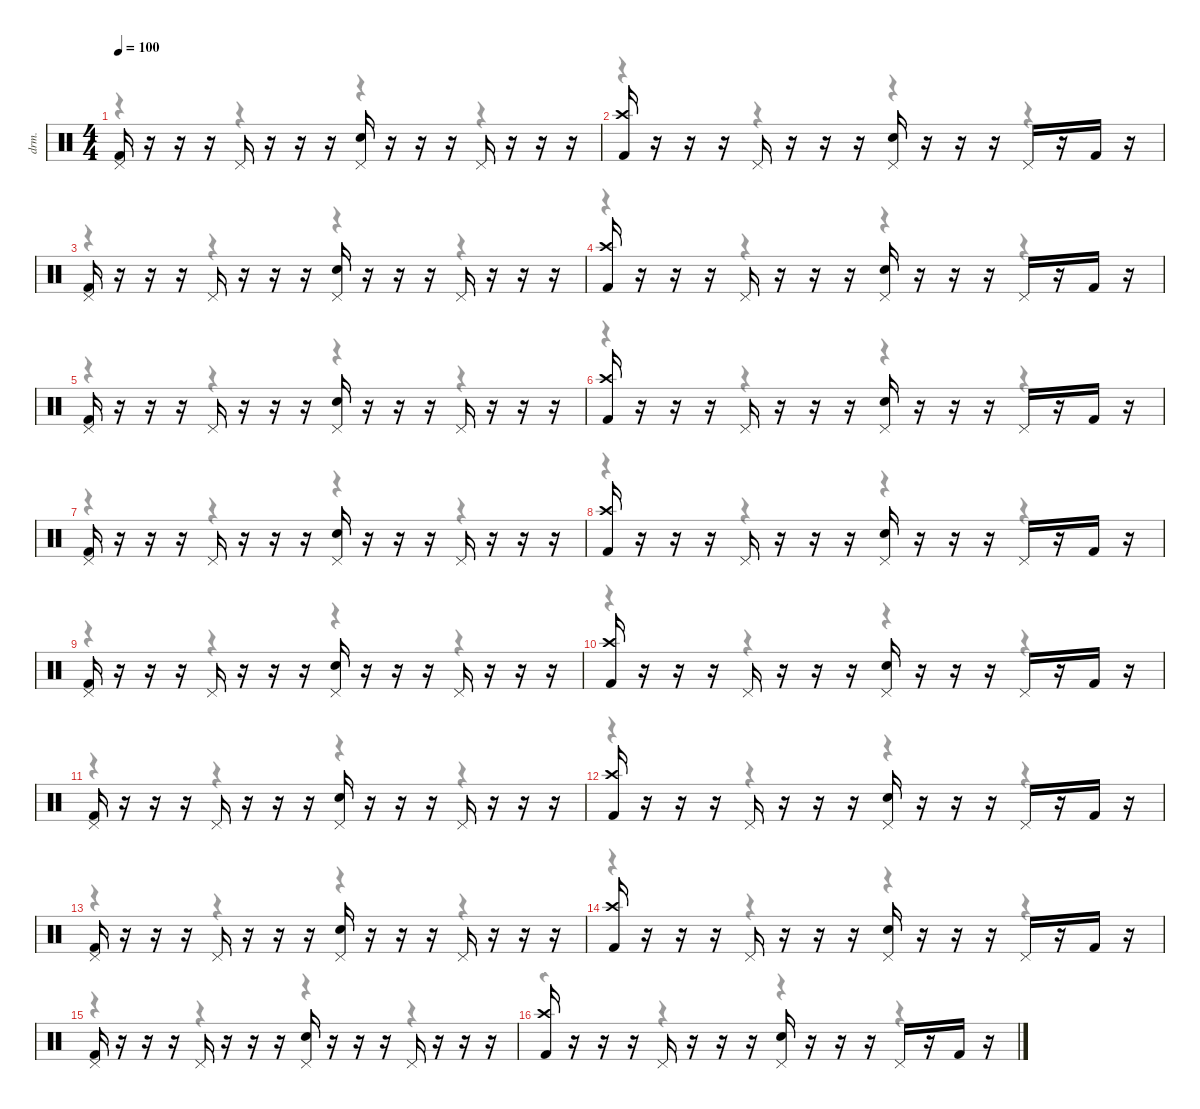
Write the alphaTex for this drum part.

\defaultSystemsLayout 4
\hideDynamics
\bracketExtendMode nobrackets
\otherSystemsTrackNameOrientation horizontal
\track ("Drums" "drm.") {instrument percussion}
\staff {score}
\articulation defaults
\voice
\ts (4 4)
\tempo 100
\clef neutral
\ks c
("Kick (hit) 2" "Pedal Hi-Hat (hit)").16{dy ff} r.16 r.16 r.16 "Pedal Hi-Hat (hit)".16 r.16 r.16 r.16 ("Snare (hit) 2" "Pedal Hi-Hat (hit)").16 r.16 r.16 r.16 "Pedal Hi-Hat (hit)".16 r.16 r.16 r.16 |
("Kick (hit) 2" "Crash high (hit)").16 r.16 r.16 r.16 "Pedal Hi-Hat (hit)".16 r.16 r.16 r.16 ("Snare (hit) 2" "Pedal Hi-Hat (hit)").16 r.16 r.16 r.16 "Pedal Hi-Hat (hit)".16 r.16 "Kick (hit) 2".16{dy f} r.16 |
("Kick (hit) 2" "Pedal Hi-Hat (hit)").16{dy ff} r.16 r.16 r.16 "Pedal Hi-Hat (hit)".16 r.16 r.16 r.16 ("Snare (hit) 2" "Pedal Hi-Hat (hit)").16 r.16 r.16 r.16 "Pedal Hi-Hat (hit)".16 r.16 r.16 r.16 |
("Kick (hit) 2" "Crash high (hit)").16 r.16 r.16 r.16 "Pedal Hi-Hat (hit)".16 r.16 r.16 r.16 ("Snare (hit) 2" "Pedal Hi-Hat (hit)").16 r.16 r.16 r.16 "Pedal Hi-Hat (hit)".16 r.16 "Kick (hit) 2".16{dy f} r.16 |
("Kick (hit) 2" "Pedal Hi-Hat (hit)").16{dy ff} r.16 r.16 r.16 "Pedal Hi-Hat (hit)".16 r.16 r.16 r.16 ("Snare (hit) 2" "Pedal Hi-Hat (hit)").16 r.16 r.16 r.16 "Pedal Hi-Hat (hit)".16 r.16 r.16 r.16 |
("Kick (hit) 2" "Crash high (hit)").16 r.16 r.16 r.16 "Pedal Hi-Hat (hit)".16 r.16 r.16 r.16 ("Snare (hit) 2" "Pedal Hi-Hat (hit)").16 r.16 r.16 r.16 "Pedal Hi-Hat (hit)".16 r.16 "Kick (hit) 2".16{dy f} r.16 |
("Kick (hit) 2" "Pedal Hi-Hat (hit)").16{dy ff} r.16 r.16 r.16 "Pedal Hi-Hat (hit)".16 r.16 r.16 r.16 ("Snare (hit) 2" "Pedal Hi-Hat (hit)").16 r.16 r.16 r.16 "Pedal Hi-Hat (hit)".16 r.16 r.16 r.16 |
("Kick (hit) 2" "Crash high (hit)").16 r.16 r.16 r.16 "Pedal Hi-Hat (hit)".16 r.16 r.16 r.16 ("Snare (hit) 2" "Pedal Hi-Hat (hit)").16 r.16 r.16 r.16 "Pedal Hi-Hat (hit)".16 r.16 "Kick (hit) 2".16{dy f} r.16 |
("Kick (hit) 2" "Pedal Hi-Hat (hit)").16{dy ff} r.16 r.16 r.16 "Pedal Hi-Hat (hit)".16 r.16 r.16 r.16 ("Snare (hit) 2" "Pedal Hi-Hat (hit)").16 r.16 r.16 r.16 "Pedal Hi-Hat (hit)".16 r.16 r.16 r.16 |
("Kick (hit) 2" "Crash high (hit)").16 r.16 r.16 r.16 "Pedal Hi-Hat (hit)".16 r.16 r.16 r.16 ("Snare (hit) 2" "Pedal Hi-Hat (hit)").16 r.16 r.16 r.16 "Pedal Hi-Hat (hit)".16 r.16 "Kick (hit) 2".16{dy f} r.16 |
("Kick (hit) 2" "Pedal Hi-Hat (hit)").16{dy ff} r.16 r.16 r.16 "Pedal Hi-Hat (hit)".16 r.16 r.16 r.16 ("Snare (hit) 2" "Pedal Hi-Hat (hit)").16 r.16 r.16 r.16 "Pedal Hi-Hat (hit)".16 r.16 r.16 r.16 |
("Kick (hit) 2" "Crash high (hit)").16 r.16 r.16 r.16 "Pedal Hi-Hat (hit)".16 r.16 r.16 r.16 ("Snare (hit) 2" "Pedal Hi-Hat (hit)").16 r.16 r.16 r.16 "Pedal Hi-Hat (hit)".16 r.16 "Kick (hit) 2".16{dy f} r.16 |
("Kick (hit) 2" "Pedal Hi-Hat (hit)").16{dy ff} r.16 r.16 r.16 "Pedal Hi-Hat (hit)".16 r.16 r.16 r.16 ("Snare (hit) 2" "Pedal Hi-Hat (hit)").16 r.16 r.16 r.16 "Pedal Hi-Hat (hit)".16 r.16 r.16 r.16 |
("Kick (hit) 2" "Crash high (hit)").16 r.16 r.16 r.16 "Pedal Hi-Hat (hit)".16 r.16 r.16 r.16 ("Snare (hit) 2" "Pedal Hi-Hat (hit)").16 r.16 r.16 r.16 "Pedal Hi-Hat (hit)".16 r.16 "Kick (hit) 2".16{dy f} r.16 |
("Kick (hit) 2" "Pedal Hi-Hat (hit)").16{dy ff} r.16 r.16 r.16 "Pedal Hi-Hat (hit)".16 r.16 r.16 r.16 ("Snare (hit) 2" "Pedal Hi-Hat (hit)").16 r.16 r.16 r.16 "Pedal Hi-Hat (hit)".16 r.16 r.16 r.16 |
("Kick (hit) 2" "Crash high (hit)").16 r.16 r.16 r.16 "Pedal Hi-Hat (hit)".16 r.16 r.16 r.16 ("Snare (hit) 2" "Pedal Hi-Hat (hit)").16 r.16 r.16 r.16 "Pedal Hi-Hat (hit)".16 r.16 "Kick (hit) 2".16{dy f} r.16
\voice
\clef neutral
\ottava regular
\simile none
\ks c
r.4{dy mf} r.4 r.4 r.4 |
r.4 r.4 r.4 r.4 |
r.4 r.4 r.4 r.4 |
r.4 r.4 r.4 r.4 |
r.4 r.4 r.4 r.4 |
r.4 r.4 r.4 r.4 |
r.4 r.4 r.4 r.4 |
r.4 r.4 r.4 r.4 |
r.4 r.4 r.4 r.4 |
r.4 r.4 r.4 r.4 |
r.4 r.4 r.4 r.4 |
r.4 r.4 r.4 r.4 |
r.4 r.4 r.4 r.4 |
r.4 r.4 r.4 r.4 |
r.4 r.4 r.4 r.4 |
r.4 r.4 r.4 r.4
